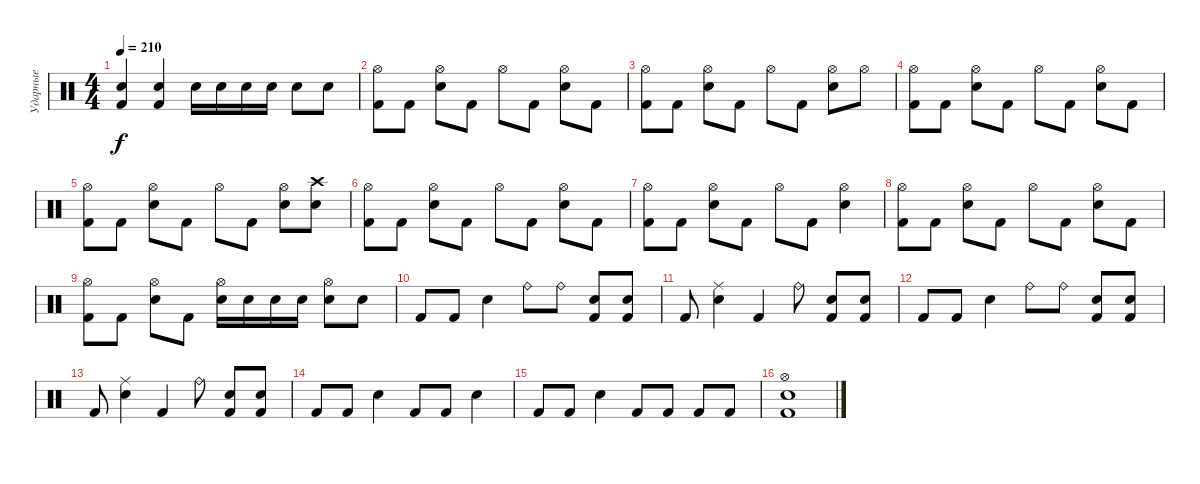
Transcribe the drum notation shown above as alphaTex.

\track ("Ударные" "Ударные") {instrument percussion}
\staff {score}
\articulation defaults
\ts (4 4)
\tempo 210
\clef neutral
\ks c
("Snare (hit) 2" "Kick (hit) 2").4{dy f} ("Snare (hit) 2" "Kick (hit) 2").4 "Snare (hit) 2".16 "Snare (hit) 2".16 "Snare (hit) 2".16 "Snare (hit) 2".16 "Snare (hit) 2".8 "Snare (hit) 2".8 |
("Hi-Hat (open)" "Kick (hit) 2").8 "Kick (hit) 2".8 ("Hi-Hat (open)" "Snare (hit) 2").8 "Kick (hit) 2".8 "Hi-Hat (open)".8 "Kick (hit) 2".8 ("Hi-Hat (open)" "Snare (hit) 2").8 "Kick (hit) 2".8 |
("Hi-Hat (open)" "Kick (hit) 2").8 "Kick (hit) 2".8 ("Hi-Hat (open)" "Snare (hit) 2").8 "Kick (hit) 2".8 "Hi-Hat (open)".8 "Kick (hit) 2".8 ("Hi-Hat (open)" "Snare (hit) 2").8 "Hi-Hat (open)".8 |
("Hi-Hat (open)" "Kick (hit) 2").8 "Kick (hit) 2".8 ("Hi-Hat (open)" "Snare (hit) 2").8 "Kick (hit) 2".8 "Hi-Hat (open)".8 "Kick (hit) 2".8 ("Hi-Hat (open)" "Snare (hit) 2").8 "Kick (hit) 2".8 |
("Hi-Hat (open)" "Kick (hit) 2").8 "Kick (hit) 2".8 ("Hi-Hat (open)" "Snare (hit) 2").8 "Kick (hit) 2".8 "Hi-Hat (open)".8 "Kick (hit) 2".8 ("Hi-Hat (open)" "Snare (hit) 2").8 ("Crash high (hit)" "Snare (hit) 2").8 |
("Hi-Hat (open)" "Kick (hit) 2").8 "Kick (hit) 2".8 ("Hi-Hat (open)" "Snare (hit) 2").8 "Kick (hit) 2".8 "Hi-Hat (open)".8 "Kick (hit) 2".8 ("Hi-Hat (open)" "Snare (hit) 2").8 "Kick (hit) 2".8 |
("Hi-Hat (open)" "Kick (hit) 2").8 "Kick (hit) 2".8 ("Hi-Hat (open)" "Snare (hit) 2").8 "Kick (hit) 2".8 "Hi-Hat (open)".8 "Kick (hit) 2".8 ("Hi-Hat (open)" "Snare (hit) 2").4 |
("Hi-Hat (open)" "Kick (hit) 2").8 "Kick (hit) 2".8 ("Hi-Hat (open)" "Snare (hit) 2").8 "Kick (hit) 2".8 "Hi-Hat (open)".8 "Kick (hit) 2".8 ("Hi-Hat (open)" "Snare (hit) 2").8 "Kick (hit) 2".8 |
("Hi-Hat (open)" "Kick (hit) 2").8 "Kick (hit) 2".8 ("Hi-Hat (open)" "Snare (hit) 2").8 "Kick (hit) 2".8 ("Hi-Hat (open)" "Snare (hit) 2").16 "Snare (hit) 2".16 "Snare (hit) 2".16 "Snare (hit) 2".16 ("Hi-Hat (open)" "Snare (hit) 2").8 "Snare (hit) 2".8 |
"Kick (hit) 2".8 "Kick (hit) 2".8 "Snare (hit) 2".4 "Ride (bell)".8 "Ride (bell)".8 ("Snare (hit) 2" "Kick (hit) 2").8 ("Snare (hit) 2" "Kick (hit) 2").8 |
"Kick (hit) 2".8 ("Ride (middle)" "Snare (hit) 2").4 "Kick (hit) 2".4 "Ride (bell)".8 ("Snare (hit) 2" "Kick (hit) 2").8 ("Snare (hit) 2" "Kick (hit) 2").8 |
"Kick (hit) 2".8 "Kick (hit) 2".8 "Snare (hit) 2".4 "Ride (bell)".8 "Ride (bell)".8 ("Snare (hit) 2" "Kick (hit) 2").8 ("Snare (hit) 2" "Kick (hit) 2").8 |
"Kick (hit) 2".8 ("Ride (middle)" "Snare (hit) 2").4 "Kick (hit) 2".4 "Ride (bell)".8 ("Snare (hit) 2" "Kick (hit) 2").8 ("Snare (hit) 2" "Kick (hit) 2").8 |
"Kick (hit) 2".8 "Kick (hit) 2".8 "Snare (hit) 2".4 "Kick (hit) 2".8 "Kick (hit) 2".8 "Snare (hit) 2".4 |
"Kick (hit) 2".8 "Kick (hit) 2".8 "Snare (hit) 2".4 "Kick (hit) 2".8 "Kick (hit) 2".8 "Kick (hit) 2".8 "Kick (hit) 2".8 |
("Hi-Hat (open)" "Snare (hit) 2" "Kick (hit) 2").1
